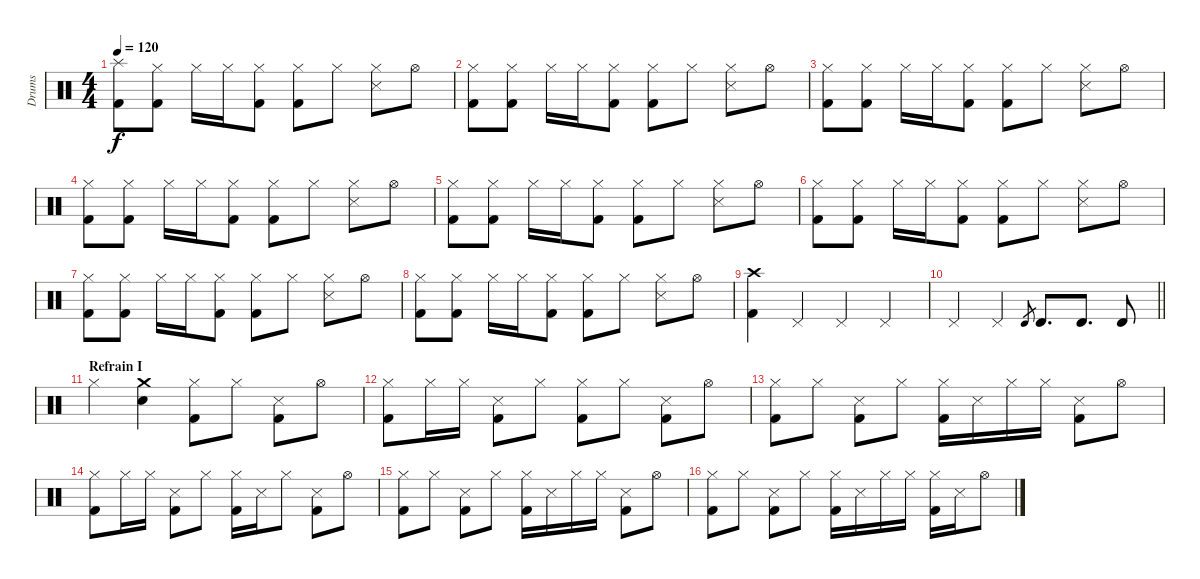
\track ("Drums" "Drums") {instrument percussion}
\staff {score}
\articulation defaults
\ts (4 4)
\tempo 120
\clef neutral
\ks c
("Splash (hit)" "Kick (hit) 2").8{dy f} ("Hi-Hat (closed)" "Kick (hit) 2").8 "Hi-Hat (closed)".16 "Hi-Hat (closed)".16 ("Hi-Hat (closed)" "Kick (hit) 2").8 ("Hi-Hat (closed)" "Kick (hit) 2").8 "Hi-Hat (closed)".8 ("Hi-Hat (closed)" "Snare (side stick) 3").8 "Hi-Hat (open)".8 |
("Hi-Hat (closed)" "Kick (hit) 2").8 ("Hi-Hat (closed)" "Kick (hit) 2").8 "Hi-Hat (closed)".16 "Hi-Hat (closed)".16 ("Hi-Hat (closed)" "Kick (hit) 2").8 ("Hi-Hat (closed)" "Kick (hit) 2").8 "Hi-Hat (closed)".8 ("Hi-Hat (closed)" "Snare (side stick) 3").8 "Hi-Hat (open)".8 |
("Hi-Hat (closed)" "Kick (hit) 2").8 ("Hi-Hat (closed)" "Kick (hit) 2").8 "Hi-Hat (closed)".16 "Hi-Hat (closed)".16 ("Hi-Hat (closed)" "Kick (hit) 2").8 ("Hi-Hat (closed)" "Kick (hit) 2").8 "Hi-Hat (closed)".8 ("Hi-Hat (closed)" "Snare (side stick) 3").8 "Hi-Hat (open)".8 |
("Hi-Hat (closed)" "Kick (hit) 2").8 ("Hi-Hat (closed)" "Kick (hit) 2").8 "Hi-Hat (closed)".16 "Hi-Hat (closed)".16 ("Hi-Hat (closed)" "Kick (hit) 2").8 ("Hi-Hat (closed)" "Kick (hit) 2").8 "Hi-Hat (closed)".8 ("Hi-Hat (closed)" "Snare (side stick) 3").8 "Hi-Hat (open)".8 |
("Hi-Hat (closed)" "Kick (hit) 2").8 ("Hi-Hat (closed)" "Kick (hit) 2").8 "Hi-Hat (closed)".16 "Hi-Hat (closed)".16 ("Hi-Hat (closed)" "Kick (hit) 2").8 ("Hi-Hat (closed)" "Kick (hit) 2").8 "Hi-Hat (closed)".8 ("Hi-Hat (closed)" "Snare (side stick) 3").8 "Hi-Hat (open)".8 |
("Hi-Hat (closed)" "Kick (hit) 2").8 ("Hi-Hat (closed)" "Kick (hit) 2").8 "Hi-Hat (closed)".16 "Hi-Hat (closed)".16 ("Hi-Hat (closed)" "Kick (hit) 2").8 ("Hi-Hat (closed)" "Kick (hit) 2").8 "Hi-Hat (closed)".8 ("Hi-Hat (closed)" "Snare (side stick) 3").8 "Hi-Hat (open)".8 |
("Hi-Hat (closed)" "Kick (hit) 2").8 ("Hi-Hat (closed)" "Kick (hit) 2").8 "Hi-Hat (closed)".16 "Hi-Hat (closed)".16 ("Hi-Hat (closed)" "Kick (hit) 2").8 ("Hi-Hat (closed)" "Kick (hit) 2").8 "Hi-Hat (closed)".8 ("Hi-Hat (closed)" "Snare (side stick) 3").8 "Hi-Hat (open)".8 |
("Hi-Hat (closed)" "Kick (hit) 2").8 ("Hi-Hat (closed)" "Kick (hit) 2").8 "Hi-Hat (closed)".16 "Hi-Hat (closed)".16 ("Hi-Hat (closed)" "Kick (hit) 2").8 ("Hi-Hat (closed)" "Kick (hit) 2").8 "Hi-Hat (closed)".8 ("Hi-Hat (closed)" "Snare (side stick) 3").8 "Hi-Hat (open)".8 |
("Crash high (hit)" "Kick (hit) 2").4 "Pedal Hi-Hat (hit)".4 "Pedal Hi-Hat (hit)".4 "Pedal Hi-Hat (hit)".4 |
\barLineRight lightlight "Pedal Hi-Hat (hit)".4 "Pedal Hi-Hat (hit)".4 "Timbale high (hit)".8{gr} "Timbale high (hit)".8{d} "Timbale high (hit)".8{d} "Timbale high (hit)".8
|
\section ("" "Refrain I")
"Hi-Hat (closed)".4 ("Crash medium (hit)" "Snare (hit) 2").4 ("Hi-Hat (closed)" "Kick (hit) 2").8 "Hi-Hat (closed)".8 ("Snare (side stick) 3" "Kick (hit) 2").8 "Hi-Hat (open)".8 |
("Hi-Hat (closed)" "Kick (hit) 2").8 "Hi-Hat (closed)".16 "Hi-Hat (closed)".16 ("Snare (side stick) 3" "Kick (hit) 2").8 "Hi-Hat (closed)".8 ("Hi-Hat (closed)" "Kick (hit) 2").8 "Hi-Hat (closed)".8 ("Snare (side stick) 3" "Kick (hit) 2").8 "Hi-Hat (open)".8 |
("Hi-Hat (closed)" "Kick (hit) 2").8 "Hi-Hat (closed)".8 ("Snare (side stick) 3" "Kick (hit) 2").8 "Hi-Hat (closed)".8 ("Hi-Hat (closed)" "Kick (hit) 2").16 "Snare (side stick) 3".16 "Hi-Hat (closed)".16 "Hi-Hat (closed)".16 ("Snare (side stick) 3" "Kick (hit) 2").8 "Hi-Hat (open)".8 |
("Hi-Hat (closed)" "Kick (hit) 2").8 "Hi-Hat (closed)".16 "Hi-Hat (closed)".16 ("Snare (side stick) 3" "Kick (hit) 2").8 "Hi-Hat (closed)".8 ("Hi-Hat (closed)" "Kick (hit) 2").16 "Snare (side stick) 3".16 "Hi-Hat (closed)".8 ("Snare (side stick) 3" "Kick (hit) 2").8 "Hi-Hat (open)".8 |
("Hi-Hat (closed)" "Kick (hit) 2").8 "Hi-Hat (closed)".8 ("Snare (side stick) 3" "Kick (hit) 2").8 "Hi-Hat (closed)".8 ("Hi-Hat (closed)" "Kick (hit) 2").16 "Snare (side stick) 3".16 "Hi-Hat (closed)".16 "Hi-Hat (closed)".16 ("Snare (side stick) 3" "Kick (hit) 2").8 "Hi-Hat (open)".8 |
("Hi-Hat (closed)" "Kick (hit) 2").8 "Hi-Hat (closed)".8 ("Snare (side stick) 3" "Kick (hit) 2").8 "Hi-Hat (closed)".8 ("Hi-Hat (closed)" "Kick (hit) 2").16 "Snare (side stick) 3".16 "Hi-Hat (closed)".16 "Hi-Hat (closed)".16 ("Hi-Hat (closed)" "Kick (hit) 2").16 "Snare (side stick) 3".16 "Hi-Hat (open)".8
